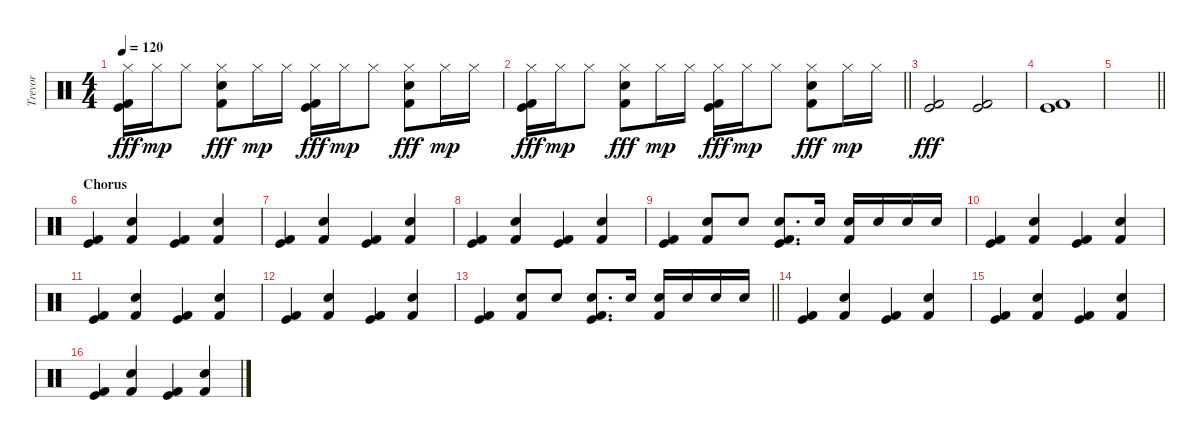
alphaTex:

\track ("Trevor" "Trevor") {instrument percussion}
\staff {score}
\articulation defaults
\ts (4 4)
\tempo 120
\clef neutral
\ks c
("Hi-Hat (closed)" "Kick (hit)" "Kick (hit) 2").16{dy fff} "Hi-Hat (closed)".16{dy mp} "Hi-Hat (closed)".8 ("Hi-Hat (closed)" "Kick (hit) 2" "Snare (hit) 2").8{dy fff} "Hi-Hat (closed)".16{dy mp} "Hi-Hat (closed)".16 ("Hi-Hat (closed)" "Kick (hit)" "Kick (hit) 2").16{dy fff} "Hi-Hat (closed)".16{dy mp} "Hi-Hat (closed)".8 ("Hi-Hat (closed)" "Kick (hit) 2" "Snare (hit) 2").8{dy fff} "Hi-Hat (closed)".16{dy mp} "Hi-Hat (closed)".16 |
\barLineRight lightlight
("Hi-Hat (closed)" "Kick (hit)" "Kick (hit) 2").16{dy fff} "Hi-Hat (closed)".16{dy mp} "Hi-Hat (closed)".8 ("Hi-Hat (closed)" "Kick (hit) 2" "Snare (hit) 2").8{dy fff} "Hi-Hat (closed)".16{dy mp} "Hi-Hat (closed)".16 ("Hi-Hat (closed)" "Kick (hit)" "Kick (hit) 2").16{dy fff} "Hi-Hat (closed)".16{dy mp} "Hi-Hat (closed)".8 ("Hi-Hat (closed)" "Kick (hit) 2" "Snare (hit) 2").8{dy fff} "Hi-Hat (closed)".16{dy mp} "Hi-Hat (closed)".16 |
\section ("" "")
("Kick (hit)" "Kick (hit) 2").2{dy fff} ("Kick (hit)" "Kick (hit) 2").2 |
("Kick (hit)" "Kick (hit) 2").1 |
\barLineRight lightlight
|
\section ("" "Chorus")
("Kick (hit)" "Kick (hit) 2").4 ("Kick (hit) 2" "Snare (hit) 2").4 ("Kick (hit)" "Kick (hit) 2").4 ("Kick (hit) 2" "Snare (hit) 2").4 |
("Kick (hit)" "Kick (hit) 2").4 ("Kick (hit) 2" "Snare (hit) 2").4 ("Kick (hit)" "Kick (hit) 2").4 ("Kick (hit) 2" "Snare (hit) 2").4 |
("Kick (hit)" "Kick (hit) 2").4 ("Kick (hit) 2" "Snare (hit) 2").4 ("Kick (hit)" "Kick (hit) 2").4 ("Kick (hit) 2" "Snare (hit) 2").4 |
("Kick (hit)" "Kick (hit) 2").4 ("Kick (hit) 2" "Snare (hit) 2").8 "Snare (hit) 2".8 ("Kick (hit)" "Kick (hit) 2" "Snare (hit) 2").8{d} "Snare (hit) 2".16 ("Kick (hit) 2" "Snare (hit) 2").16 "Snare (hit) 2".16 "Snare (hit) 2".16 "Snare (hit) 2".16 |
("Kick (hit)" "Kick (hit) 2").4 ("Kick (hit) 2" "Snare (hit) 2").4 ("Kick (hit)" "Kick (hit) 2").4 ("Kick (hit) 2" "Snare (hit) 2").4 |
("Kick (hit)" "Kick (hit) 2").4 ("Kick (hit) 2" "Snare (hit) 2").4 ("Kick (hit)" "Kick (hit) 2").4 ("Kick (hit) 2" "Snare (hit) 2").4 |
("Kick (hit)" "Kick (hit) 2").4 ("Kick (hit) 2" "Snare (hit) 2").4 ("Kick (hit)" "Kick (hit) 2").4 ("Kick (hit) 2" "Snare (hit) 2").4 |
\barLineRight lightlight
("Kick (hit)" "Kick (hit) 2").4 ("Kick (hit) 2" "Snare (hit) 2").8 "Snare (hit) 2".8 ("Kick (hit)" "Kick (hit) 2" "Snare (hit) 2").8{d} "Snare (hit) 2".16 ("Kick (hit) 2" "Snare (hit) 2").16 "Snare (hit) 2".16 "Snare (hit) 2".16 "Snare (hit) 2".16 |
("Kick (hit)" "Kick (hit) 2").4 ("Kick (hit) 2" "Snare (hit) 2").4 ("Kick (hit)" "Kick (hit) 2").4 ("Kick (hit) 2" "Snare (hit) 2").4 |
("Kick (hit)" "Kick (hit) 2").4 ("Kick (hit) 2" "Snare (hit) 2").4 ("Kick (hit)" "Kick (hit) 2").4 ("Kick (hit) 2" "Snare (hit) 2").4 |
("Kick (hit)" "Kick (hit) 2").4 ("Kick (hit) 2" "Snare (hit) 2").4 ("Kick (hit)" "Kick (hit) 2").4 ("Kick (hit) 2" "Snare (hit) 2").4
